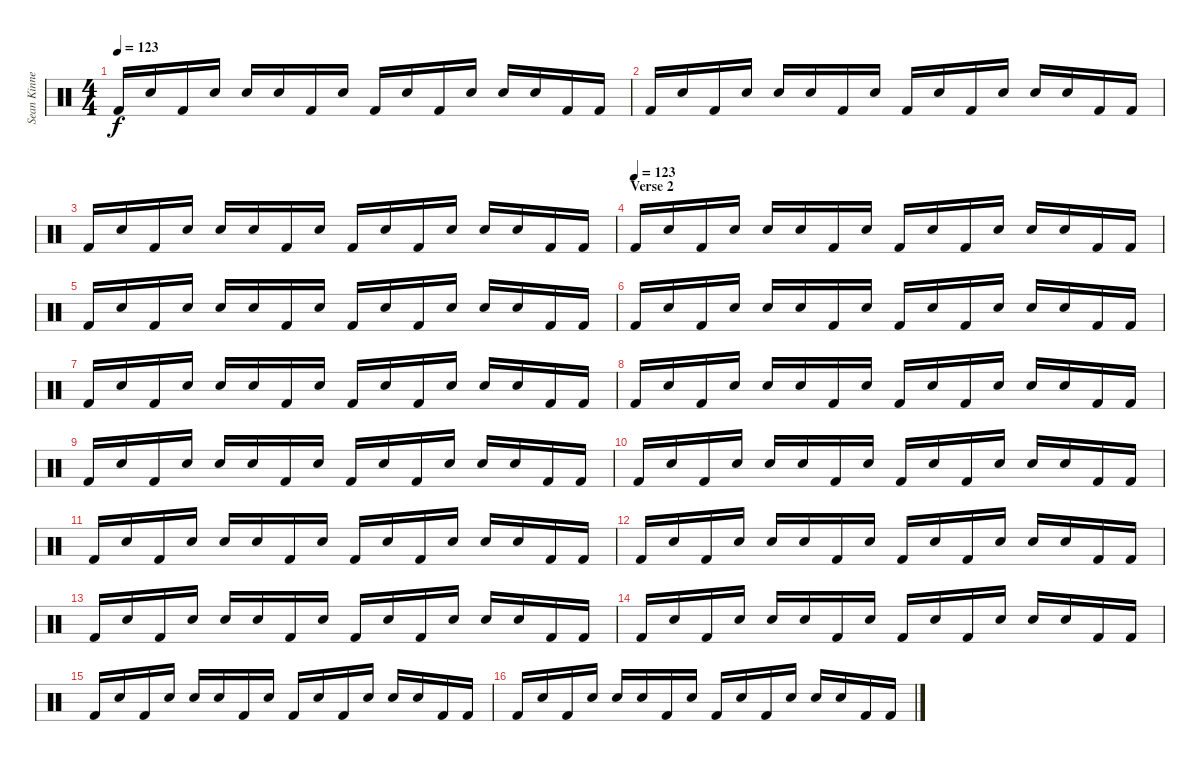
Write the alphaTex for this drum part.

\track ("Sean Kinney - Drums" "Sean Kinne") {instrument percussion}
\staff {score}
\articulation defaults
\ts (4 4)
\tempo 123
\clef neutral
\ks c "Kick (hit) 2".16{dy f} "Snare (hit)".16 "Kick (hit) 2".16 "Snare (hit)".16 "Electric Snare (hit)".16 "Snare (hit)".16 "Kick (hit) 2".16 "Snare (hit)".16 "Kick (hit) 2".16 "Snare (hit)".16 "Kick (hit) 2".16 "Snare (hit)".16 "Electric Snare (hit)".16 "Snare (hit)".16 "Kick (hit) 2".16 "Kick (hit) 2".16
|
"Kick (hit) 2".16 "Snare (hit)".16 "Kick (hit) 2".16 "Snare (hit)".16 "Electric Snare (hit)".16 "Snare (hit)".16 "Kick (hit) 2".16 "Snare (hit)".16 "Kick (hit) 2".16 "Snare (hit)".16 "Kick (hit) 2".16 "Snare (hit)".16 "Electric Snare (hit)".16 "Snare (hit)".16 "Kick (hit) 2".16 "Kick (hit) 2".16 |
"Kick (hit) 2".16 "Snare (hit)".16 "Kick (hit) 2".16 "Snare (hit)".16 "Electric Snare (hit)".16 "Snare (hit)".16 "Kick (hit) 2".16 "Snare (hit)".16 "Kick (hit) 2".16 "Snare (hit)".16 "Kick (hit) 2".16 "Snare (hit)".16 "Electric Snare (hit)".16 "Snare (hit)".16 "Kick (hit) 2".16 "Kick (hit) 2".16 |
\section ("" "Verse 2")
\tempo (123)
"Kick (hit) 2".16{volume 16 balance 8} "Snare (hit)".16 "Kick (hit) 2".16 "Snare (hit)".16 "Electric Snare (hit)".16 "Snare (hit)".16 "Kick (hit) 2".16 "Snare (hit)".16 "Kick (hit) 2".16 "Snare (hit)".16 "Kick (hit) 2".16 "Snare (hit)".16 "Electric Snare (hit)".16 "Snare (hit)".16 "Kick (hit) 2".16 "Kick (hit) 2".16 |
"Kick (hit) 2".16 "Snare (hit)".16 "Kick (hit) 2".16 "Snare (hit)".16 "Electric Snare (hit)".16 "Snare (hit)".16 "Kick (hit) 2".16 "Snare (hit)".16 "Kick (hit) 2".16 "Snare (hit)".16 "Kick (hit) 2".16 "Snare (hit)".16 "Electric Snare (hit)".16 "Snare (hit)".16 "Kick (hit) 2".16 "Kick (hit) 2".16 |
"Kick (hit) 2".16 "Snare (hit)".16 "Kick (hit) 2".16 "Snare (hit)".16 "Electric Snare (hit)".16 "Snare (hit)".16 "Kick (hit) 2".16 "Snare (hit)".16 "Kick (hit) 2".16 "Snare (hit)".16 "Kick (hit) 2".16 "Snare (hit)".16 "Electric Snare (hit)".16 "Snare (hit)".16 "Kick (hit) 2".16 "Kick (hit) 2".16 |
"Kick (hit) 2".16 "Snare (hit)".16 "Kick (hit) 2".16 "Snare (hit)".16 "Electric Snare (hit)".16 "Snare (hit)".16 "Kick (hit) 2".16 "Snare (hit)".16 "Kick (hit) 2".16 "Snare (hit)".16 "Kick (hit) 2".16 "Snare (hit)".16 "Electric Snare (hit)".16 "Snare (hit)".16 "Kick (hit) 2".16 "Kick (hit) 2".16 |
"Kick (hit) 2".16 "Snare (hit)".16 "Kick (hit) 2".16 "Snare (hit)".16 "Electric Snare (hit)".16 "Snare (hit)".16 "Kick (hit) 2".16 "Snare (hit)".16 "Kick (hit) 2".16 "Snare (hit)".16 "Kick (hit) 2".16 "Snare (hit)".16 "Electric Snare (hit)".16 "Snare (hit)".16 "Kick (hit) 2".16 "Kick (hit) 2".16 |
"Kick (hit) 2".16 "Snare (hit)".16 "Kick (hit) 2".16 "Snare (hit)".16 "Electric Snare (hit)".16 "Snare (hit)".16 "Kick (hit) 2".16 "Snare (hit)".16 "Kick (hit) 2".16 "Snare (hit)".16 "Kick (hit) 2".16 "Snare (hit)".16 "Electric Snare (hit)".16 "Snare (hit)".16 "Kick (hit) 2".16 "Kick (hit) 2".16 |
"Kick (hit) 2".16 "Snare (hit)".16 "Kick (hit) 2".16 "Snare (hit)".16 "Electric Snare (hit)".16 "Snare (hit)".16 "Kick (hit) 2".16 "Snare (hit)".16 "Kick (hit) 2".16 "Snare (hit)".16 "Kick (hit) 2".16 "Snare (hit)".16 "Electric Snare (hit)".16 "Snare (hit)".16 "Kick (hit) 2".16 "Kick (hit) 2".16 |
"Kick (hit) 2".16 "Snare (hit)".16 "Kick (hit) 2".16 "Snare (hit)".16 "Electric Snare (hit)".16 "Snare (hit)".16 "Kick (hit) 2".16 "Snare (hit)".16 "Kick (hit) 2".16 "Snare (hit)".16 "Kick (hit) 2".16 "Snare (hit)".16 "Electric Snare (hit)".16 "Snare (hit)".16 "Kick (hit) 2".16 "Kick (hit) 2".16 |
"Kick (hit) 2".16 "Snare (hit)".16 "Kick (hit) 2".16 "Snare (hit)".16 "Electric Snare (hit)".16 "Snare (hit)".16 "Kick (hit) 2".16 "Snare (hit)".16 "Kick (hit) 2".16 "Snare (hit)".16 "Kick (hit) 2".16 "Snare (hit)".16 "Electric Snare (hit)".16 "Snare (hit)".16 "Kick (hit) 2".16 "Kick (hit) 2".16 |
"Kick (hit) 2".16 "Snare (hit)".16 "Kick (hit) 2".16 "Snare (hit)".16 "Electric Snare (hit)".16 "Snare (hit)".16 "Kick (hit) 2".16 "Snare (hit)".16 "Kick (hit) 2".16 "Snare (hit)".16 "Kick (hit) 2".16 "Snare (hit)".16 "Electric Snare (hit)".16 "Snare (hit)".16 "Kick (hit) 2".16 "Kick (hit) 2".16 |
"Kick (hit) 2".16 "Snare (hit)".16 "Kick (hit) 2".16 "Snare (hit)".16 "Electric Snare (hit)".16 "Snare (hit)".16 "Kick (hit) 2".16 "Snare (hit)".16 "Kick (hit) 2".16 "Snare (hit)".16 "Kick (hit) 2".16 "Snare (hit)".16 "Electric Snare (hit)".16 "Snare (hit)".16 "Kick (hit) 2".16 "Kick (hit) 2".16 |
"Kick (hit) 2".16 "Snare (hit)".16 "Kick (hit) 2".16 "Snare (hit)".16 "Electric Snare (hit)".16 "Snare (hit)".16 "Kick (hit) 2".16 "Snare (hit)".16 "Kick (hit) 2".16 "Snare (hit)".16 "Kick (hit) 2".16 "Snare (hit)".16 "Electric Snare (hit)".16 "Snare (hit)".16 "Kick (hit) 2".16 "Kick (hit) 2".16 |
"Kick (hit) 2".16 "Snare (hit)".16 "Kick (hit) 2".16 "Snare (hit)".16 "Electric Snare (hit)".16 "Snare (hit)".16 "Kick (hit) 2".16 "Snare (hit)".16 "Kick (hit) 2".16 "Snare (hit)".16 "Kick (hit) 2".16 "Snare (hit)".16 "Electric Snare (hit)".16 "Snare (hit)".16 "Kick (hit) 2".16 "Kick (hit) 2".16
